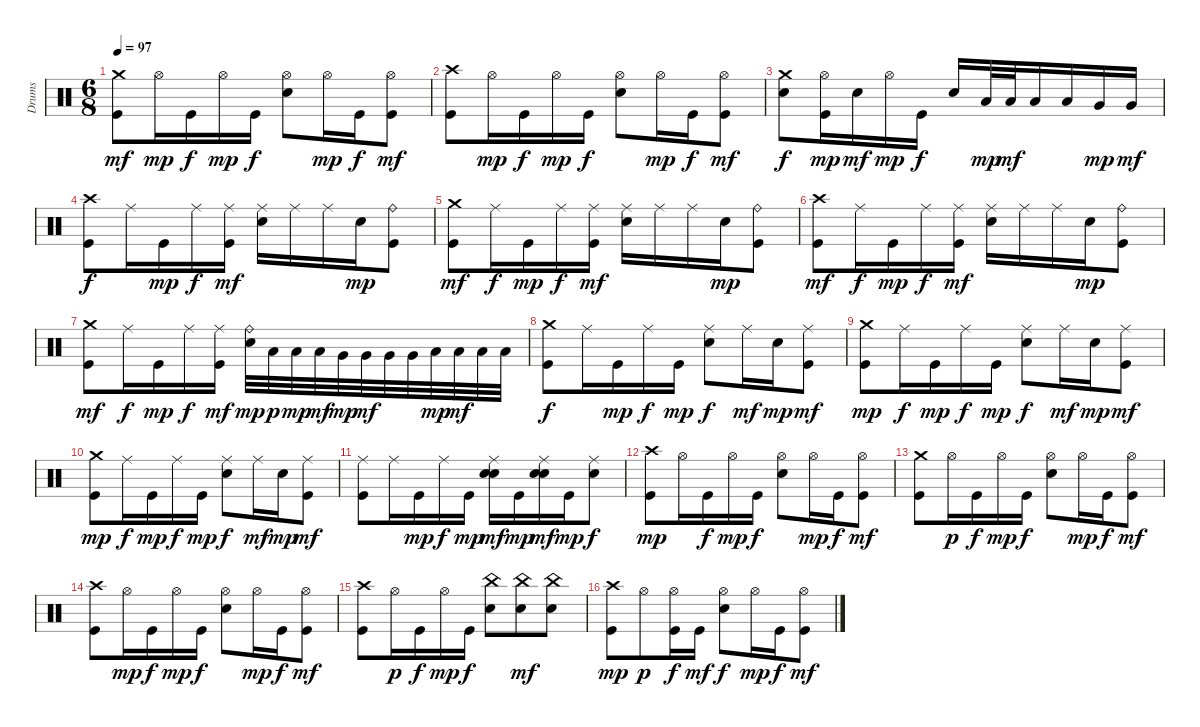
\track ("Drums" "Drums") {instrument percussion}
\staff {score}
\articulation defaults
\ts (6 8)
\tempo 97
\clef neutral
\ks c
("Crash medium (hit)" "Kick (hit)").8{dy mf} "Hi-Hat (open)".16{dy mp} "Kick (hit)".16{dy f} "Hi-Hat (open)".16{dy mp} "Kick (hit)".16{dy f} ("Hi-Hat (open)" "Snare (hit) 2").8 "Hi-Hat (open)".16{dy mp} "Kick (hit)".16{dy f} ("Hi-Hat (open)" "Kick (hit)").8{dy mf} |
("Crash high (hit)" "Kick (hit)").8 "Hi-Hat (open)".16{dy mp} "Kick (hit)".16{dy f} "Hi-Hat (open)".16{dy mp} "Kick (hit)".16{dy f} ("Hi-Hat (open)" "Snare (hit) 2").8 "Hi-Hat (open)".16{dy mp} "Kick (hit)".16{dy f} ("Hi-Hat (open)" "Kick (hit)").8{dy mf} |
("Crash medium (hit)" "Snare (hit) 2").8{dy f} ("Hi-Hat (open)" "Kick (hit)").16{dy mp} "Snare (hit) 2".16{dy mf} "Hi-Hat (open)".16{dy mp} "Kick (hit)".16{dy f} "Snare (hit) 2".16 "Low Tom (hit)".32{dy mp} "Low Tom (hit)".32{dy mf} "Low Tom (hit)".16 "Low Tom (hit)".16 "Very Low Tom (hit)".16{dy mp} "Very Low Tom (hit)".16{dy mf} |
("Crash high (hit)" "Kick (hit)").8{dy f} "Ride (middle)".16 "Kick (hit)".16{dy mp} "Ride (middle)".16{dy f} ("Kick (hit)" "Ride (middle)").16{dy mf} ("Snare (hit) 2" "Ride (middle)").16 "Ride (middle)".16 "Ride (middle)".16 "Snare (hit) 2".16{dy mp} ("Ride (bell)" "Kick (hit)").8 |
("Crash medium (hit)" "Kick (hit)").8{dy mf} "Ride (middle)".16{dy f} "Kick (hit)".16{dy mp} "Ride (middle)".16{dy f} ("Kick (hit)" "Ride (middle)").16{dy mf} ("Snare (hit) 2" "Ride (middle)").16 "Ride (middle)".16 "Ride (middle)".16 "Snare (hit) 2".16{dy mp} ("Ride (bell)" "Kick (hit)").8 |
("Crash high (hit)" "Kick (hit)").8{dy mf} "Ride (middle)".16{dy f} "Kick (hit)".16{dy mp} "Ride (middle)".16{dy f} ("Kick (hit)" "Ride (middle)").16{dy mf} ("Snare (hit) 2" "Ride (middle)").16 "Ride (middle)".16 "Ride (middle)".16 "Snare (hit) 2".16{dy mp} ("Ride (bell)" "Kick (hit)").8 |
("Crash medium (hit)" "Kick (hit)").8{dy mf} "Ride (middle)".16{dy f} "Kick (hit)".16{dy mp} "Ride (middle)".16{dy f} ("Kick (hit)" "Ride (middle)").16{dy mf} ("Ride (bell)" "Snare (hit) 2").32{dy mp} "Low Tom (hit)".32{dy p} "Low Tom (hit)".32{dy mp} "Low Tom (hit)".32{dy mf} "Very Low Tom (hit)".32{dy mp} "Very Low Tom (hit)".32{dy mf} "Very Low Tom (hit)".32 "Very Low Tom (hit)".32 "Low Floor Tom (hit)".32{dy mp} "Low Floor Tom (hit)".32{dy mf} "Low Floor Tom (hit)".32 "Low Floor Tom (hit)".32 |
("Crash medium (hit)" "Kick (hit)").8{dy f} "Ride (middle)".16 "Kick (hit)".16{dy mp} "Ride (middle)".16{dy f} "Kick (hit)".16{dy mp} ("Snare (hit) 2" "Ride (middle)").8{dy f} "Ride (middle)".16{dy mf} "Snare (hit) 2".16{dy mp} ("Kick (hit)" "Ride (middle)").8{dy mf} |
("Crash medium (hit)" "Kick (hit)").8{dy mp} "Ride (middle)".16{dy f} "Kick (hit)".16{dy mp} "Ride (middle)".16{dy f} "Kick (hit)".16{dy mp} ("Snare (hit) 2" "Ride (middle)").8{dy f} "Ride (middle)".16{dy mf} "Snare (hit) 2".16{dy mp} ("Kick (hit)" "Ride (middle)").8{dy mf} |
("Crash medium (hit)" "Kick (hit)").8{dy mp} "Ride (middle)".16{dy f} "Kick (hit)".16{dy mp} "Ride (middle)".16{dy f} "Kick (hit)".16{dy mp} ("Snare (hit) 2" "Ride (middle)").8{dy f} "Ride (middle)".16{dy mf} "Snare (hit) 2".16{dy mp} ("Kick (hit)" "Ride (middle)").8{dy mf} |
("Kick (hit)" "Ride (middle)").8 "Ride (middle)".16 "Kick (hit)".16{dy mp} "Ride (middle)".16{dy f} "Kick (hit)".16{dy mp} ("Snare (hit) 2" "Snare (hit) 2" "Ride (middle)").16{dy mf} "Kick (hit)".16{dy mp} ("Snare (hit) 2" "Snare (hit) 2" "Ride (middle)").16{dy mf} "Kick (hit)".16{dy mp} ("Snare (hit) 2" "Ride (middle)").8{dy f} |
("Crash high (hit)" "Kick (hit)").8{dy mp} "Hi-Hat (open)".16 "Kick (hit)".16{dy f} "Hi-Hat (open)".16{dy mp} "Kick (hit)".16{dy f} ("Hi-Hat (open)" "Snare (hit) 2").8 "Hi-Hat (open)".16{dy mp} "Kick (hit)".16{dy f} ("Hi-Hat (open)" "Kick (hit)").8{dy mf} |
("Crash medium (hit)" "Kick (hit)").8 "Hi-Hat (open)".16{dy p} "Kick (hit)".16{dy f} "Hi-Hat (open)".16{dy mp} "Kick (hit)".16{dy f} ("Hi-Hat (open)" "Snare (hit) 2").8 "Hi-Hat (open)".16{dy mp} "Kick (hit)".16{dy f} ("Hi-Hat (open)" "Kick (hit)").8{dy mf} |
("Crash high (hit)" "Kick (hit)").8 "Hi-Hat (open)".16{dy mp} "Kick (hit)".16{dy f} "Hi-Hat (open)".16{dy mp} "Kick (hit)".16{dy f} ("Hi-Hat (open)" "Snare (hit) 2").8 "Hi-Hat (open)".16{dy mp} "Kick (hit)".16{dy f} ("Hi-Hat (open)" "Kick (hit)").8{dy mf} |
("Crash high (hit)" "Kick (hit)").8 "Hi-Hat (open)".16{dy p} "Kick (hit)".16{dy f} "Hi-Hat (open)".16{dy mp} "Kick (hit)".16{dy f} ("China (hit)" "Snare (hit) 2").8 ("China (hit)" "Snare (hit) 2").8{dy mf} ("China (hit)" "Snare (hit) 2").8 |
("Crash high (hit)" "Kick (hit)").8{dy mp} "Hi-Hat (open)".8{dy p} ("Hi-Hat (open)" "Kick (hit)").16{dy f} "Kick (hit)".16{dy mf} ("Hi-Hat (open)" "Snare (hit) 2").8{dy f} "Hi-Hat (open)".16{dy mp} "Kick (hit)".16{dy f} ("Hi-Hat (open)" "Kick (hit)").8{dy mf}
